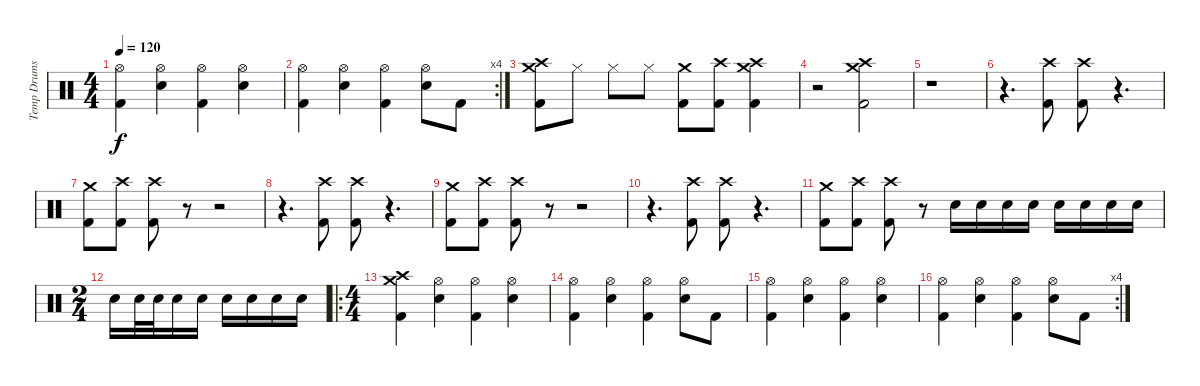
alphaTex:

\track ("Temp Drums (i dont know them!)" "Temp Drums") {instrument percussion}
\staff {score}
\articulation defaults
\ts (4 4)
\tempo 120
\clef neutral
\ks c
("Hi-Hat (open)" "Kick (hit) 2").4{dy f} ("Hi-Hat (open)" "Snare (hit) 2").4 ("Hi-Hat (open)" "Kick (hit) 2").4 ("Hi-Hat (open)" "Snare (hit) 2").4 |
\rc 4
("Hi-Hat (open)" "Kick (hit) 2").4 ("Hi-Hat (open)" "Snare (hit) 2").4 ("Hi-Hat (open)" "Kick (hit) 2").4 ("Hi-Hat (open)" "Snare (hit) 2").8 "Kick (hit) 2".8 |
("Crash high (hit)" "Crash medium (hit)" "Kick (hit) 2").8 "Hi-Hat (closed)".8 "Hi-Hat (closed)".8 "Hi-Hat (closed)".8 ("Crash medium (hit)" "Kick (hit) 2").8 ("Crash high (hit)" "Kick (hit) 2").8 ("Crash medium (hit)" "Crash high (hit)" "Kick (hit) 2").4 |
r.2 ("Crash high (hit)" "Crash medium (hit)" "Kick (hit) 2").2{volume 0} |
r.1{volume 16} |
r.4{d} ("Crash high (hit)" "Kick (hit) 2").8 ("Crash high (hit)" "Kick (hit) 2").8 r.4{d} |
("Crash medium (hit)" "Kick (hit) 2").8 ("Crash high (hit)" "Kick (hit) 2").8 ("Crash high (hit)" "Kick (hit) 2").8 r.8 r.2 |
r.4{d} ("Crash high (hit)" "Kick (hit) 2").8 ("Crash high (hit)" "Kick (hit) 2").8 r.4{d} |
("Crash medium (hit)" "Kick (hit) 2").8 ("Crash high (hit)" "Kick (hit) 2").8 ("Crash high (hit)" "Kick (hit) 2").8 r.8 r.2 |
r.4{d} ("Crash high (hit)" "Kick (hit) 2").8 ("Crash high (hit)" "Kick (hit) 2").8 r.4{d} |
("Crash medium (hit)" "Kick (hit) 2").8 ("Crash high (hit)" "Kick (hit) 2").8 ("Crash high (hit)" "Kick (hit) 2").8 r.8 "Snare (hit) 2".16 "Snare (hit) 2".16 "Snare (hit) 2".16 "Snare (hit) 2".16 "Snare (hit) 2".16 "Snare (hit) 2".16 "Snare (hit) 2".16 "Snare (hit) 2".16 |
\ts (2 4)
"Snare (hit) 2".16 "Snare (hit) 2".32 "Snare (hit) 2".32 "Snare (hit) 2".16 "Snare (hit) 2".16 "Snare (hit) 2".16 "Snare (hit) 2".16 "Snare (hit) 2".16 "Snare (hit) 2".16 |
\ro
\ts (4 4)
("Crash medium (hit)" "Crash high (hit)" "Kick (hit) 2").4 ("Hi-Hat (open)" "Snare (hit) 2").4 ("Hi-Hat (open)" "Kick (hit) 2").4 ("Hi-Hat (open)" "Snare (hit) 2").4 |
("Hi-Hat (open)" "Kick (hit) 2").4 ("Hi-Hat (open)" "Snare (hit) 2").4 ("Hi-Hat (open)" "Kick (hit) 2").4 ("Hi-Hat (open)" "Snare (hit) 2").8 "Kick (hit) 2".8 |
("Hi-Hat (open)" "Kick (hit) 2").4 ("Hi-Hat (open)" "Snare (hit) 2").4 ("Hi-Hat (open)" "Kick (hit) 2").4 ("Hi-Hat (open)" "Snare (hit) 2").4 |
\rc 4
("Hi-Hat (open)" "Kick (hit) 2").4 ("Hi-Hat (open)" "Snare (hit) 2").4 ("Hi-Hat (open)" "Kick (hit) 2").4 ("Hi-Hat (open)" "Snare (hit) 2").8 "Kick (hit) 2".8
